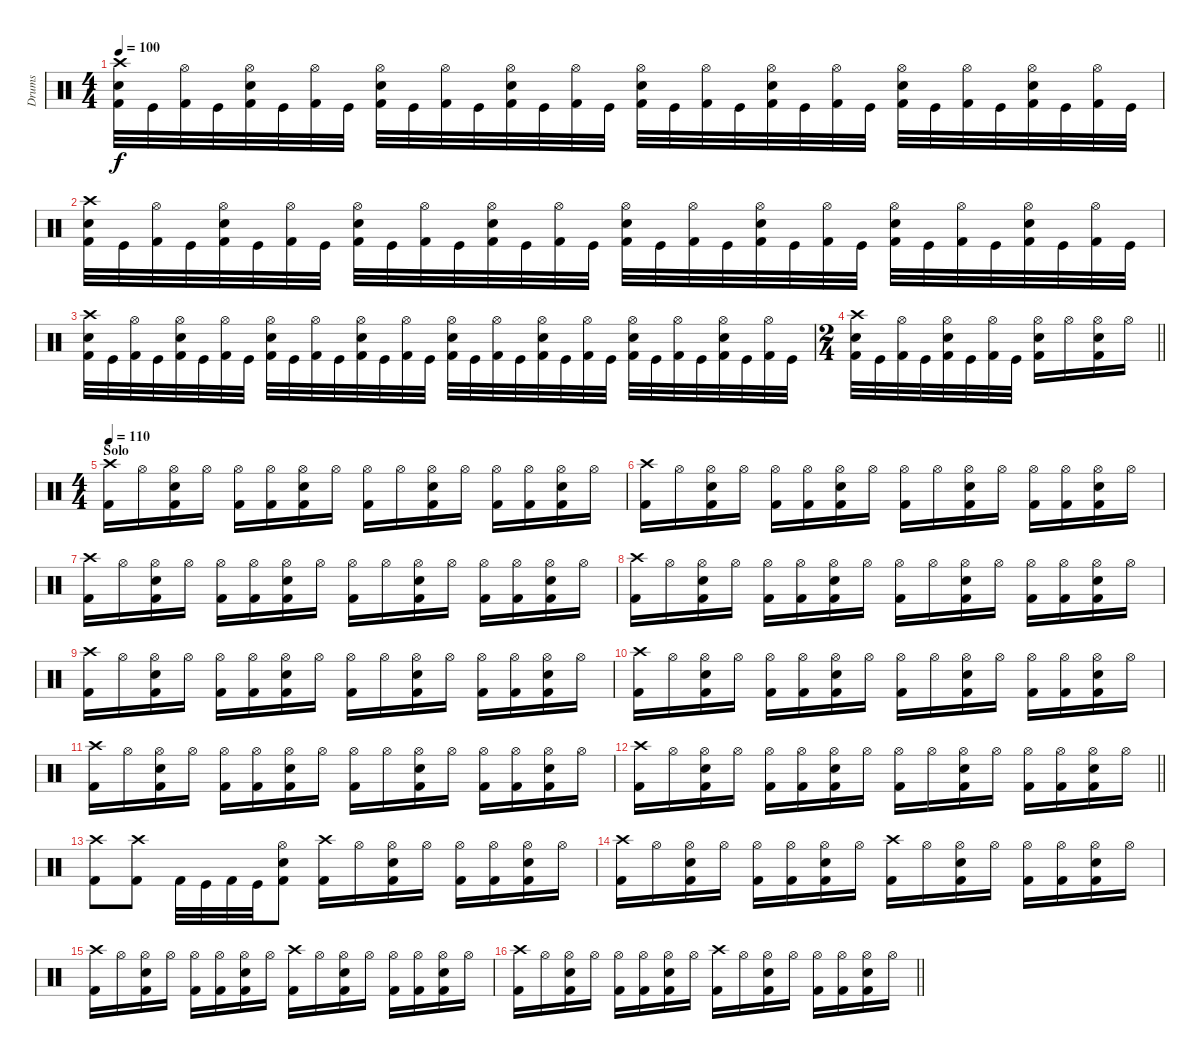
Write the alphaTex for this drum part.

\track ("Drums" "Drums") {instrument percussion}
\staff {score}
\articulation defaults
\ts (4 4)
\tempo 100
\clef neutral
\ks c
("Kick (hit) 2" "Snare (hit) 2" "Crash high (hit)").32{dy f} "Kick (hit)".32 ("Kick (hit) 2" "Hi-Hat (open)").32 "Kick (hit)".32 ("Kick (hit) 2" "Snare (hit) 2" "Hi-Hat (open)").32 "Kick (hit)".32 ("Kick (hit) 2" "Hi-Hat (open)").32 "Kick (hit)".32 ("Kick (hit) 2" "Snare (hit) 2" "Hi-Hat (open)").32 "Kick (hit)".32 ("Kick (hit) 2" "Hi-Hat (open)").32 "Kick (hit)".32 ("Kick (hit) 2" "Snare (hit) 2" "Hi-Hat (open)").32 "Kick (hit)".32 ("Kick (hit) 2" "Hi-Hat (open)").32 "Kick (hit)".32 ("Kick (hit) 2" "Snare (hit) 2" "Hi-Hat (open)").32 "Kick (hit)".32 ("Kick (hit) 2" "Hi-Hat (open)").32 "Kick (hit)".32 ("Kick (hit) 2" "Snare (hit) 2" "Hi-Hat (open)").32 "Kick (hit)".32 ("Kick (hit) 2" "Hi-Hat (open)").32 "Kick (hit)".32 ("Kick (hit) 2" "Snare (hit) 2" "Hi-Hat (open)").32 "Kick (hit)".32 ("Kick (hit) 2" "Hi-Hat (open)").32 "Kick (hit)".32 ("Kick (hit) 2" "Snare (hit) 2" "Hi-Hat (open)").32 "Kick (hit)".32 ("Kick (hit) 2" "Hi-Hat (open)").32 "Kick (hit)".32 |
("Kick (hit) 2" "Snare (hit) 2" "Crash high (hit)").32 "Kick (hit)".32 ("Kick (hit) 2" "Hi-Hat (open)").32 "Kick (hit)".32 ("Kick (hit) 2" "Snare (hit) 2" "Hi-Hat (open)").32 "Kick (hit)".32 ("Kick (hit) 2" "Hi-Hat (open)").32 "Kick (hit)".32 ("Kick (hit) 2" "Snare (hit) 2" "Hi-Hat (open)").32 "Kick (hit)".32 ("Kick (hit) 2" "Hi-Hat (open)").32 "Kick (hit)".32 ("Kick (hit) 2" "Snare (hit) 2" "Hi-Hat (open)").32 "Kick (hit)".32 ("Kick (hit) 2" "Hi-Hat (open)").32 "Kick (hit)".32 ("Kick (hit) 2" "Snare (hit) 2" "Hi-Hat (open)").32 "Kick (hit)".32 ("Kick (hit) 2" "Hi-Hat (open)").32 "Kick (hit)".32 ("Kick (hit) 2" "Snare (hit) 2" "Hi-Hat (open)").32 "Kick (hit)".32 ("Kick (hit) 2" "Hi-Hat (open)").32 "Kick (hit)".32 ("Kick (hit) 2" "Snare (hit) 2" "Hi-Hat (open)").32 "Kick (hit)".32 ("Kick (hit) 2" "Hi-Hat (open)").32 "Kick (hit)".32 ("Kick (hit) 2" "Snare (hit) 2" "Hi-Hat (open)").32 "Kick (hit)".32 ("Kick (hit) 2" "Hi-Hat (open)").32 "Kick (hit)".32 |
("Kick (hit) 2" "Snare (hit) 2" "Crash high (hit)").32 "Kick (hit)".32 ("Kick (hit) 2" "Hi-Hat (open)").32 "Kick (hit)".32 ("Kick (hit) 2" "Snare (hit) 2" "Hi-Hat (open)").32 "Kick (hit)".32 ("Kick (hit) 2" "Hi-Hat (open)").32 "Kick (hit)".32 ("Kick (hit) 2" "Snare (hit) 2" "Hi-Hat (open)").32 "Kick (hit)".32 ("Kick (hit) 2" "Hi-Hat (open)").32 "Kick (hit)".32 ("Kick (hit) 2" "Snare (hit) 2" "Hi-Hat (open)").32 "Kick (hit)".32 ("Kick (hit) 2" "Hi-Hat (open)").32 "Kick (hit)".32 ("Kick (hit) 2" "Snare (hit) 2" "Hi-Hat (open)").32 "Kick (hit)".32 ("Kick (hit) 2" "Hi-Hat (open)").32 "Kick (hit)".32 ("Kick (hit) 2" "Snare (hit) 2" "Hi-Hat (open)").32 "Kick (hit)".32 ("Kick (hit) 2" "Hi-Hat (open)").32 "Kick (hit)".32 ("Kick (hit) 2" "Snare (hit) 2" "Hi-Hat (open)").32 "Kick (hit)".32 ("Kick (hit) 2" "Hi-Hat (open)").32 "Kick (hit)".32 ("Kick (hit) 2" "Snare (hit) 2" "Hi-Hat (open)").32 "Kick (hit)".32 ("Kick (hit) 2" "Hi-Hat (open)").32 "Kick (hit)".32 |
\ts (2 4)
\barLineRight lightlight
("Kick (hit) 2" "Snare (hit) 2" "Crash high (hit)").32 "Kick (hit)".32 ("Kick (hit) 2" "Hi-Hat (open)").32 "Kick (hit)".32 ("Kick (hit) 2" "Snare (hit) 2" "Hi-Hat (open)").32 "Kick (hit)".32 ("Kick (hit) 2" "Hi-Hat (open)").32 "Kick (hit)".32 ("Kick (hit) 2" "Snare (hit) 2" "Hi-Hat (open)").16 "Hi-Hat (open)".16 ("Kick (hit) 2" "Snare (hit) 2" "Hi-Hat (open)").16 "Hi-Hat (open)".16 |
\ts (4 4)
\section ("" "Solo")
\tempo 110
("Kick (hit) 2" "Crash high (hit)").16 "Hi-Hat (open)".16 ("Kick (hit) 2" "Snare (hit) 2" "Hi-Hat (open)").16 "Hi-Hat (open)".16 ("Kick (hit) 2" "Hi-Hat (open)").16 ("Kick (hit) 2" "Hi-Hat (open)").16 ("Kick (hit) 2" "Snare (hit) 2" "Hi-Hat (open)").16 "Hi-Hat (open)".16 ("Kick (hit) 2" "Hi-Hat (open)").16 "Hi-Hat (open)".16 ("Kick (hit) 2" "Snare (hit) 2" "Hi-Hat (open)").16 "Hi-Hat (open)".16 ("Kick (hit) 2" "Hi-Hat (open)").16 ("Kick (hit) 2" "Hi-Hat (open)").16 ("Kick (hit) 2" "Snare (hit) 2" "Hi-Hat (open)").16 "Hi-Hat (open)".16 |
("Kick (hit) 2" "Crash high (hit)").16 "Hi-Hat (open)".16 ("Kick (hit) 2" "Snare (hit) 2" "Hi-Hat (open)").16 "Hi-Hat (open)".16 ("Kick (hit) 2" "Hi-Hat (open)").16 ("Kick (hit) 2" "Hi-Hat (open)").16 ("Kick (hit) 2" "Snare (hit) 2" "Hi-Hat (open)").16 "Hi-Hat (open)".16 ("Kick (hit) 2" "Hi-Hat (open)").16 "Hi-Hat (open)".16 ("Kick (hit) 2" "Snare (hit) 2" "Hi-Hat (open)").16 "Hi-Hat (open)".16 ("Kick (hit) 2" "Hi-Hat (open)").16 ("Kick (hit) 2" "Hi-Hat (open)").16 ("Kick (hit) 2" "Snare (hit) 2" "Hi-Hat (open)").16 "Hi-Hat (open)".16 |
("Kick (hit) 2" "Crash high (hit)").16 "Hi-Hat (open)".16 ("Kick (hit) 2" "Snare (hit) 2" "Hi-Hat (open)").16 "Hi-Hat (open)".16 ("Kick (hit) 2" "Hi-Hat (open)").16 ("Kick (hit) 2" "Hi-Hat (open)").16 ("Kick (hit) 2" "Snare (hit) 2" "Hi-Hat (open)").16 "Hi-Hat (open)".16 ("Kick (hit) 2" "Hi-Hat (open)").16 "Hi-Hat (open)".16 ("Kick (hit) 2" "Snare (hit) 2" "Hi-Hat (open)").16 "Hi-Hat (open)".16 ("Kick (hit) 2" "Hi-Hat (open)").16 ("Kick (hit) 2" "Hi-Hat (open)").16 ("Kick (hit) 2" "Snare (hit) 2" "Hi-Hat (open)").16 "Hi-Hat (open)".16 |
("Kick (hit) 2" "Crash high (hit)").16 "Hi-Hat (open)".16 ("Kick (hit) 2" "Snare (hit) 2" "Hi-Hat (open)").16 "Hi-Hat (open)".16 ("Kick (hit) 2" "Hi-Hat (open)").16 ("Kick (hit) 2" "Hi-Hat (open)").16 ("Kick (hit) 2" "Snare (hit) 2" "Hi-Hat (open)").16 "Hi-Hat (open)".16 ("Kick (hit) 2" "Hi-Hat (open)").16 "Hi-Hat (open)".16 ("Kick (hit) 2" "Snare (hit) 2" "Hi-Hat (open)").16 "Hi-Hat (open)".16 ("Kick (hit) 2" "Hi-Hat (open)").16 ("Kick (hit) 2" "Hi-Hat (open)").16 ("Kick (hit) 2" "Snare (hit) 2" "Hi-Hat (open)").16 "Hi-Hat (open)".16 |
("Kick (hit) 2" "Crash high (hit)").16 "Hi-Hat (open)".16 ("Kick (hit) 2" "Snare (hit) 2" "Hi-Hat (open)").16 "Hi-Hat (open)".16 ("Kick (hit) 2" "Hi-Hat (open)").16 ("Kick (hit) 2" "Hi-Hat (open)").16 ("Kick (hit) 2" "Snare (hit) 2" "Hi-Hat (open)").16 "Hi-Hat (open)".16 ("Kick (hit) 2" "Hi-Hat (open)").16 "Hi-Hat (open)".16 ("Kick (hit) 2" "Snare (hit) 2" "Hi-Hat (open)").16 "Hi-Hat (open)".16 ("Kick (hit) 2" "Hi-Hat (open)").16 ("Kick (hit) 2" "Hi-Hat (open)").16 ("Kick (hit) 2" "Snare (hit) 2" "Hi-Hat (open)").16 "Hi-Hat (open)".16 |
("Kick (hit) 2" "Crash high (hit)").16 "Hi-Hat (open)".16 ("Kick (hit) 2" "Snare (hit) 2" "Hi-Hat (open)").16 "Hi-Hat (open)".16 ("Kick (hit) 2" "Hi-Hat (open)").16 ("Kick (hit) 2" "Hi-Hat (open)").16 ("Kick (hit) 2" "Snare (hit) 2" "Hi-Hat (open)").16 "Hi-Hat (open)".16 ("Kick (hit) 2" "Hi-Hat (open)").16 "Hi-Hat (open)".16 ("Kick (hit) 2" "Snare (hit) 2" "Hi-Hat (open)").16 "Hi-Hat (open)".16 ("Kick (hit) 2" "Hi-Hat (open)").16 ("Kick (hit) 2" "Hi-Hat (open)").16 ("Kick (hit) 2" "Snare (hit) 2" "Hi-Hat (open)").16 "Hi-Hat (open)".16 |
("Kick (hit) 2" "Crash high (hit)").16 "Hi-Hat (open)".16 ("Kick (hit) 2" "Snare (hit) 2" "Hi-Hat (open)").16 "Hi-Hat (open)".16 ("Kick (hit) 2" "Hi-Hat (open)").16 ("Kick (hit) 2" "Hi-Hat (open)").16 ("Kick (hit) 2" "Snare (hit) 2" "Hi-Hat (open)").16 "Hi-Hat (open)".16 ("Kick (hit) 2" "Hi-Hat (open)").16 "Hi-Hat (open)".16 ("Kick (hit) 2" "Snare (hit) 2" "Hi-Hat (open)").16 "Hi-Hat (open)".16 ("Kick (hit) 2" "Hi-Hat (open)").16 ("Kick (hit) 2" "Hi-Hat (open)").16 ("Kick (hit) 2" "Snare (hit) 2" "Hi-Hat (open)").16 "Hi-Hat (open)".16 |
\barLineRight lightlight
("Kick (hit) 2" "Crash high (hit)").16 "Hi-Hat (open)".16 ("Kick (hit) 2" "Snare (hit) 2" "Hi-Hat (open)").16 "Hi-Hat (open)".16 ("Kick (hit) 2" "Hi-Hat (open)").16 ("Kick (hit) 2" "Hi-Hat (open)").16 ("Kick (hit) 2" "Snare (hit) 2" "Hi-Hat (open)").16 "Hi-Hat (open)".16 ("Kick (hit) 2" "Hi-Hat (open)").16 "Hi-Hat (open)".16 ("Kick (hit) 2" "Snare (hit) 2" "Hi-Hat (open)").16 "Hi-Hat (open)".16 ("Kick (hit) 2" "Hi-Hat (open)").16 ("Kick (hit) 2" "Hi-Hat (open)").16 ("Kick (hit) 2" "Snare (hit) 2" "Hi-Hat (open)").16 "Hi-Hat (open)".16 |
("Kick (hit) 2" "Crash high (hit)").8 ("Kick (hit) 2" "Crash high (hit)").8 "Kick (hit) 2".32 "Kick (hit)".32 "Kick (hit) 2".32 "Kick (hit)".32 ("Kick (hit) 2" "Snare (hit) 2" "Hi-Hat (open)").8 ("Kick (hit) 2" "Crash high (hit)").16 "Hi-Hat (open)".16 ("Kick (hit) 2" "Snare (hit) 2" "Hi-Hat (open)").16 "Hi-Hat (open)".16 ("Kick (hit) 2" "Hi-Hat (open)").16 ("Kick (hit) 2" "Hi-Hat (open)").16 ("Kick (hit) 2" "Snare (hit) 2" "Hi-Hat (open)").16 "Hi-Hat (open)".16 |
("Kick (hit) 2" "Crash high (hit)").16 "Hi-Hat (open)".16 ("Kick (hit) 2" "Snare (hit) 2" "Hi-Hat (open)").16 "Hi-Hat (open)".16 ("Kick (hit) 2" "Hi-Hat (open)").16 ("Kick (hit) 2" "Hi-Hat (open)").16 ("Kick (hit) 2" "Snare (hit) 2" "Hi-Hat (open)").16 "Hi-Hat (open)".16 ("Kick (hit) 2" "Crash high (hit)").16 "Hi-Hat (open)".16 ("Kick (hit) 2" "Snare (hit) 2" "Hi-Hat (open)").16 "Hi-Hat (open)".16 ("Kick (hit) 2" "Hi-Hat (open)").16 ("Kick (hit) 2" "Hi-Hat (open)").16 ("Kick (hit) 2" "Snare (hit) 2" "Hi-Hat (open)").16 "Hi-Hat (open)".16 |
("Kick (hit) 2" "Crash high (hit)").16 "Hi-Hat (open)".16 ("Kick (hit) 2" "Snare (hit) 2" "Hi-Hat (open)").16 "Hi-Hat (open)".16 ("Kick (hit) 2" "Hi-Hat (open)").16 ("Kick (hit) 2" "Hi-Hat (open)").16 ("Kick (hit) 2" "Snare (hit) 2" "Hi-Hat (open)").16 "Hi-Hat (open)".16 ("Kick (hit) 2" "Crash high (hit)").16 "Hi-Hat (open)".16 ("Kick (hit) 2" "Snare (hit) 2" "Hi-Hat (open)").16 "Hi-Hat (open)".16 ("Kick (hit) 2" "Hi-Hat (open)").16 ("Kick (hit) 2" "Hi-Hat (open)").16 ("Kick (hit) 2" "Snare (hit) 2" "Hi-Hat (open)").16 "Hi-Hat (open)".16 |
\barLineRight lightlight
("Kick (hit) 2" "Crash high (hit)").16 "Hi-Hat (open)".16 ("Kick (hit) 2" "Snare (hit) 2" "Hi-Hat (open)").16 "Hi-Hat (open)".16 ("Kick (hit) 2" "Hi-Hat (open)").16 ("Kick (hit) 2" "Hi-Hat (open)").16 ("Kick (hit) 2" "Snare (hit) 2" "Hi-Hat (open)").16 "Hi-Hat (open)".16 ("Kick (hit) 2" "Crash high (hit)").16 "Hi-Hat (open)".16 ("Kick (hit) 2" "Snare (hit) 2" "Hi-Hat (open)").16 "Hi-Hat (open)".16 ("Kick (hit) 2" "Hi-Hat (open)").16 ("Kick (hit) 2" "Hi-Hat (open)").16 ("Kick (hit) 2" "Snare (hit) 2" "Hi-Hat (open)").16 "Hi-Hat (open)".16
